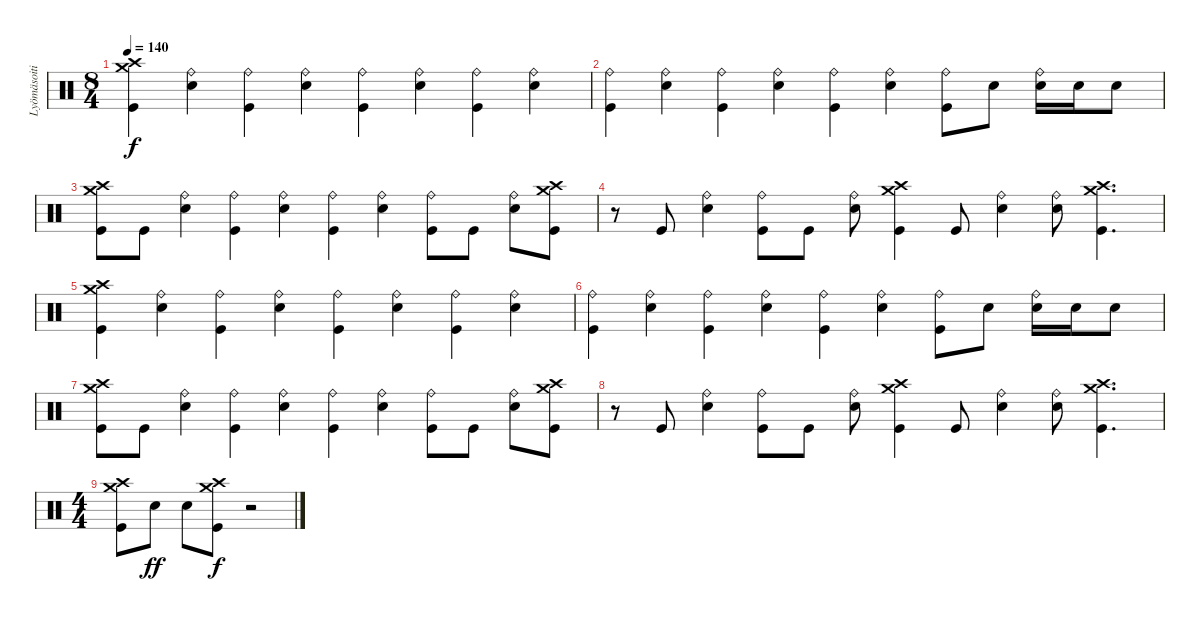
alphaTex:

\track ("Lyömäsoitin" "Lyömäsoiti") {instrument percussion}
\staff {score}
\articulation defaults
\ts (8 4)
\tempo 140
\clef neutral
\ks c
("Crash medium (hit)" "Crash high (hit)" "Kick (hit)").4{dy f} ("Ride (bell)" "Snare (hit) 2").4 ("Ride (bell)" "Kick (hit)").4 ("Ride (bell)" "Snare (hit) 2").4 ("Ride (bell)" "Kick (hit)").4 ("Ride (bell)" "Snare (hit) 2").4 ("Ride (bell)" "Kick (hit)").4 ("Ride (bell)" "Snare (hit) 2").4 |
("Ride (bell)" "Kick (hit)").4 ("Ride (bell)" "Snare (hit) 2").4 ("Ride (bell)" "Kick (hit)").4 ("Ride (bell)" "Snare (hit) 2").4 ("Ride (bell)" "Kick (hit)").4 ("Ride (bell)" "Snare (hit) 2").4 ("Ride (bell)" "Kick (hit)").8 "Snare (hit) 2".8 ("Ride (bell)" "Snare (hit) 2").16 "Snare (hit) 2".16 "Snare (hit) 2".8 |
("Crash medium (hit)" "Crash high (hit)" "Kick (hit)").8 "Kick (hit)".8 ("Ride (bell)" "Snare (hit) 2").4 ("Ride (bell)" "Kick (hit)").4 ("Ride (bell)" "Snare (hit) 2").4 ("Ride (bell)" "Kick (hit)").4 ("Ride (bell)" "Snare (hit) 2").4 ("Ride (bell)" "Kick (hit)").8 "Kick (hit)".8 ("Ride (bell)" "Snare (hit) 2").8 ("Crash medium (hit)" "Crash high (hit)" "Kick (hit)").8 |
r.8 "Kick (hit)".8 ("Ride (bell)" "Snare (hit) 2").4 ("Ride (bell)" "Kick (hit)").8 "Kick (hit)".8 ("Ride (bell)" "Snare (hit) 2").8 ("Crash medium (hit)" "Crash high (hit)" "Kick (hit)").4 "Kick (hit)".8 ("Ride (bell)" "Snare (hit) 2").4 ("Ride (bell)" "Snare (hit) 2").8 ("Crash medium (hit)" "Crash high (hit)" "Kick (hit)").4{d} |
("Crash medium (hit)" "Crash high (hit)" "Kick (hit)").4 ("Ride (bell)" "Snare (hit) 2").4 ("Ride (bell)" "Kick (hit)").4 ("Ride (bell)" "Snare (hit) 2").4 ("Ride (bell)" "Kick (hit)").4 ("Ride (bell)" "Snare (hit) 2").4 ("Ride (bell)" "Kick (hit)").4 ("Ride (bell)" "Snare (hit) 2").4 |
("Ride (bell)" "Kick (hit)").4 ("Ride (bell)" "Snare (hit) 2").4 ("Ride (bell)" "Kick (hit)").4 ("Ride (bell)" "Snare (hit) 2").4 ("Ride (bell)" "Kick (hit)").4 ("Ride (bell)" "Snare (hit) 2").4 ("Ride (bell)" "Kick (hit)").8 "Snare (hit) 2".8 ("Ride (bell)" "Snare (hit) 2").16 "Snare (hit) 2".16 "Snare (hit) 2".8 |
("Crash medium (hit)" "Crash high (hit)" "Kick (hit)").8 "Kick (hit)".8 ("Ride (bell)" "Snare (hit) 2").4 ("Ride (bell)" "Kick (hit)").4 ("Ride (bell)" "Snare (hit) 2").4 ("Ride (bell)" "Kick (hit)").4 ("Ride (bell)" "Snare (hit) 2").4 ("Ride (bell)" "Kick (hit)").8 "Kick (hit)".8 ("Ride (bell)" "Snare (hit) 2").8 ("Crash medium (hit)" "Crash high (hit)" "Kick (hit)").8 |
r.8 "Kick (hit)".8 ("Ride (bell)" "Snare (hit) 2").4 ("Ride (bell)" "Kick (hit)").8 "Kick (hit)".8 ("Ride (bell)" "Snare (hit) 2").8 ("Crash medium (hit)" "Crash high (hit)" "Kick (hit)").4 "Kick (hit)".8 ("Ride (bell)" "Snare (hit) 2").4 ("Ride (bell)" "Snare (hit) 2").8 ("Crash medium (hit)" "Crash high (hit)" "Kick (hit)").4{d} |
\ts (4 4)
("Crash medium (hit)" "Crash high (hit)" "Kick (hit)").8 "Snare (hit) 2".8{dy ff} "Snare (hit) 2".8 ("Crash medium (hit)" "Crash high (hit)" "Kick (hit)").8{dy f} r.2
